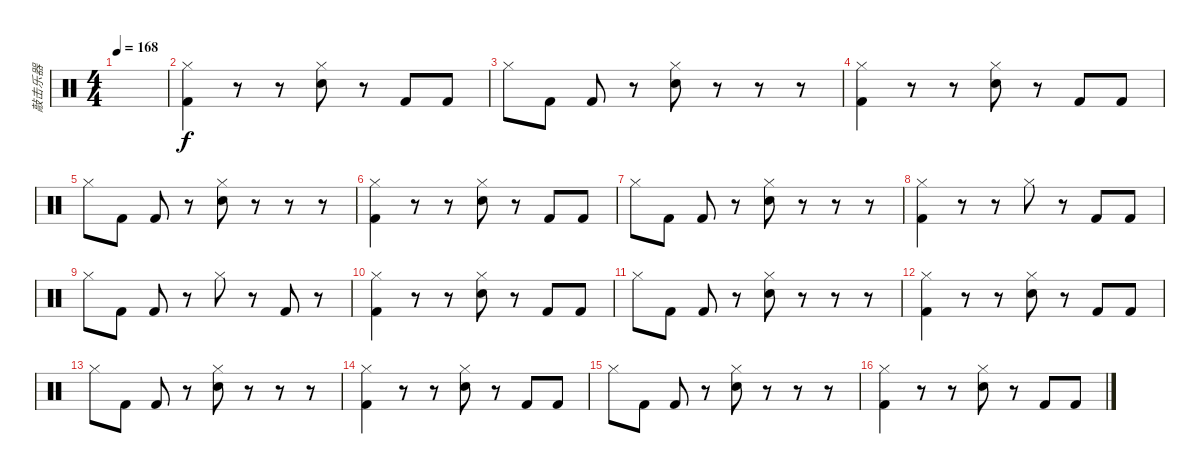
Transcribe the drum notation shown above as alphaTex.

\track ("敲击乐器" "敲击乐器") {instrument percussion}
\staff {score}
\articulation defaults
\ts (4 4)
\tempo 168
\clef neutral
\ks c
|
("Hi-Hat (closed)" "Kick (hit) 2").4 r.8 r.8 ("Hi-Hat (closed)" "Snare (hit) 2").8 r.8 "Kick (hit) 2".8 "Kick (hit) 2".8 |
"Hi-Hat (closed)".8 "Kick (hit) 2".8 "Kick (hit) 2".8 r.8 ("Hi-Hat (closed)" "Snare (hit) 2").8 r.8 r.8 r.8 |
("Hi-Hat (closed)" "Kick (hit) 2").4 r.8 r.8 ("Hi-Hat (closed)" "Snare (hit) 2").8 r.8 "Kick (hit) 2".8 "Kick (hit) 2".8 |
"Hi-Hat (closed)".8 "Kick (hit) 2".8 "Kick (hit) 2".8 r.8 ("Hi-Hat (closed)" "Snare (hit) 2").8 r.8 r.8 r.8 |
("Hi-Hat (closed)" "Kick (hit) 2").4 r.8 r.8 ("Hi-Hat (closed)" "Snare (hit) 2").8 r.8 "Kick (hit) 2".8 "Kick (hit) 2".8 |
"Hi-Hat (closed)".8 "Kick (hit) 2".8 "Kick (hit) 2".8 r.8 ("Hi-Hat (closed)" "Snare (hit) 2").8 r.8 r.8 r.8 |
("Hi-Hat (closed)" "Kick (hit) 2").4 r.8 r.8 "Hi-Hat (closed)".8 r.8 "Kick (hit) 2".8 "Kick (hit) 2".8 |
"Hi-Hat (closed)".8 "Kick (hit) 2".8 "Kick (hit) 2".8 r.8 "Hi-Hat (closed)".8 r.8 "Kick (hit) 2".8 r.8 |
("Hi-Hat (closed)" "Kick (hit) 2").4 r.8 r.8 ("Hi-Hat (closed)" "Snare (hit) 2").8 r.8 "Kick (hit) 2".8 "Kick (hit) 2".8 |
"Hi-Hat (closed)".8 "Kick (hit) 2".8 "Kick (hit) 2".8 r.8 ("Hi-Hat (closed)" "Snare (hit) 2").8 r.8 r.8 r.8 |
("Hi-Hat (closed)" "Kick (hit) 2").4 r.8 r.8 ("Hi-Hat (closed)" "Snare (hit) 2").8 r.8 "Kick (hit) 2".8 "Kick (hit) 2".8 |
"Hi-Hat (closed)".8 "Kick (hit) 2".8 "Kick (hit) 2".8 r.8 ("Hi-Hat (closed)" "Snare (hit) 2").8 r.8 r.8 r.8 |
("Hi-Hat (closed)" "Kick (hit) 2").4 r.8 r.8 ("Hi-Hat (closed)" "Snare (hit) 2").8 r.8 "Kick (hit) 2".8 "Kick (hit) 2".8 |
"Hi-Hat (closed)".8 "Kick (hit) 2".8 "Kick (hit) 2".8 r.8 ("Hi-Hat (closed)" "Snare (hit) 2").8 r.8 r.8 r.8 |
("Hi-Hat (closed)" "Kick (hit) 2").4 r.8 r.8 ("Hi-Hat (closed)" "Snare (hit) 2").8 r.8 "Kick (hit) 2".8 "Kick (hit) 2".8
